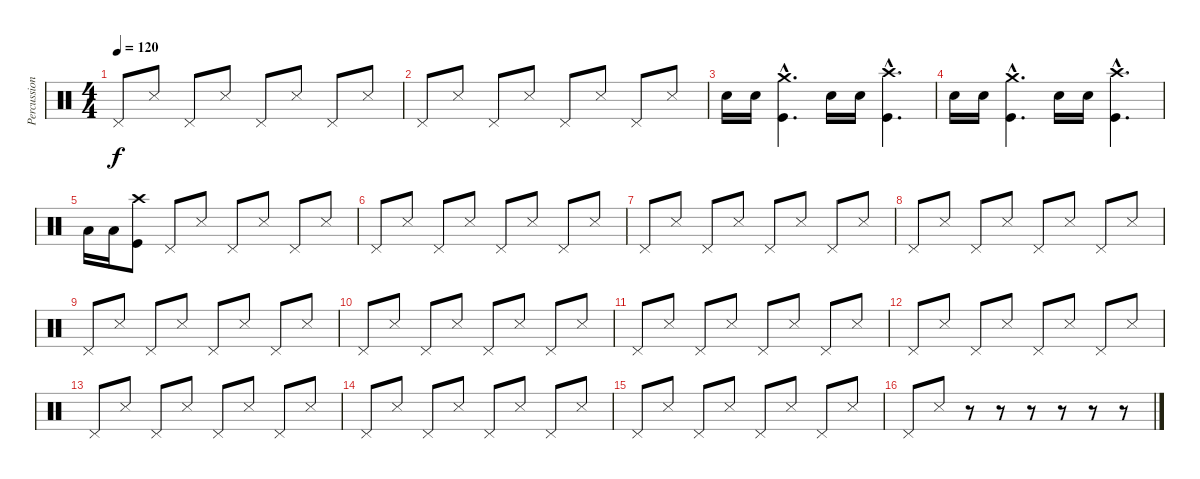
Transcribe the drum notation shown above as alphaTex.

\track ("Percussion" "Percussion") {instrument percussion}
\staff {score}
\articulation defaults
\ts (4 4)
\tempo 120
\clef neutral
\ks c "Pedal Hi-Hat (hit)".8{dy f} "Snare (side stick) 3".8 "Pedal Hi-Hat (hit)".8 "Snare (side stick) 3".8 "Pedal Hi-Hat (hit)".8 "Snare (side stick) 3".8 "Pedal Hi-Hat (hit)".8 "Snare (side stick) 3".8
|
"Pedal Hi-Hat (hit)".8 "Snare (side stick) 3".8 "Pedal Hi-Hat (hit)".8 "Snare (side stick) 3".8 "Pedal Hi-Hat (hit)".8 "Snare (side stick) 3".8 "Pedal Hi-Hat (hit)".8 "Snare (side stick) 3".8 |
"Snare (hit) 2".16 "Snare (hit) 2".16 ("Kick (hit)"{hac} "Crash medium (hit)"{hac}).4{d} "Snare (hit) 2".16 "Snare (hit) 2".16 ("Kick (hit)"{hac} "Crash high (hit)"{hac}).4{d} |
"Snare (hit) 2".16 "Snare (hit) 2".16 ("Kick (hit)"{hac} "Crash medium (hit)"{hac}).4{d} "Snare (hit) 2".16 "Snare (hit) 2".16 ("Kick (hit)"{hac} "Crash high (hit)"{hac}).4{d} |
"Low Floor Tom (hit)".16 "Low Floor Tom (hit)".16 ("Kick (hit)" "Crash high (hit)").8 "Pedal Hi-Hat (hit)".8 "Snare (side stick) 3".8 "Pedal Hi-Hat (hit)".8 "Snare (side stick) 3".8 "Pedal Hi-Hat (hit)".8 "Snare (side stick) 3".8 |
"Pedal Hi-Hat (hit)".8 "Snare (side stick) 3".8 "Pedal Hi-Hat (hit)".8 "Snare (side stick) 3".8 "Pedal Hi-Hat (hit)".8 "Snare (side stick) 3".8 "Pedal Hi-Hat (hit)".8 "Snare (side stick) 3".8 |
"Pedal Hi-Hat (hit)".8 "Snare (side stick) 3".8 "Pedal Hi-Hat (hit)".8 "Snare (side stick) 3".8 "Pedal Hi-Hat (hit)".8 "Snare (side stick) 3".8 "Pedal Hi-Hat (hit)".8 "Snare (side stick) 3".8 |
"Pedal Hi-Hat (hit)".8 "Snare (side stick) 3".8 "Pedal Hi-Hat (hit)".8 "Snare (side stick) 3".8 "Pedal Hi-Hat (hit)".8 "Snare (side stick) 3".8 "Pedal Hi-Hat (hit)".8 "Snare (side stick) 3".8 |
"Pedal Hi-Hat (hit)".8 "Snare (side stick) 3".8 "Pedal Hi-Hat (hit)".8 "Snare (side stick) 3".8 "Pedal Hi-Hat (hit)".8 "Snare (side stick) 3".8 "Pedal Hi-Hat (hit)".8 "Snare (side stick) 3".8 |
"Pedal Hi-Hat (hit)".8 "Snare (side stick) 3".8 "Pedal Hi-Hat (hit)".8 "Snare (side stick) 3".8 "Pedal Hi-Hat (hit)".8 "Snare (side stick) 3".8 "Pedal Hi-Hat (hit)".8 "Snare (side stick) 3".8 |
"Pedal Hi-Hat (hit)".8 "Snare (side stick) 3".8 "Pedal Hi-Hat (hit)".8 "Snare (side stick) 3".8 "Pedal Hi-Hat (hit)".8 "Snare (side stick) 3".8 "Pedal Hi-Hat (hit)".8 "Snare (side stick) 3".8 |
"Pedal Hi-Hat (hit)".8 "Snare (side stick) 3".8 "Pedal Hi-Hat (hit)".8 "Snare (side stick) 3".8 "Pedal Hi-Hat (hit)".8 "Snare (side stick) 3".8 "Pedal Hi-Hat (hit)".8 "Snare (side stick) 3".8 |
"Pedal Hi-Hat (hit)".8 "Snare (side stick) 3".8 "Pedal Hi-Hat (hit)".8 "Snare (side stick) 3".8 "Pedal Hi-Hat (hit)".8 "Snare (side stick) 3".8 "Pedal Hi-Hat (hit)".8 "Snare (side stick) 3".8 |
"Pedal Hi-Hat (hit)".8 "Snare (side stick) 3".8 "Pedal Hi-Hat (hit)".8 "Snare (side stick) 3".8 "Pedal Hi-Hat (hit)".8 "Snare (side stick) 3".8 "Pedal Hi-Hat (hit)".8 "Snare (side stick) 3".8 |
"Pedal Hi-Hat (hit)".8 "Snare (side stick) 3".8 "Pedal Hi-Hat (hit)".8 "Snare (side stick) 3".8 "Pedal Hi-Hat (hit)".8 "Snare (side stick) 3".8 "Pedal Hi-Hat (hit)".8 "Snare (side stick) 3".8 |
"Pedal Hi-Hat (hit)".8 "Snare (side stick) 3".8 r.8 r.8 r.8 r.8 r.8 r.8
